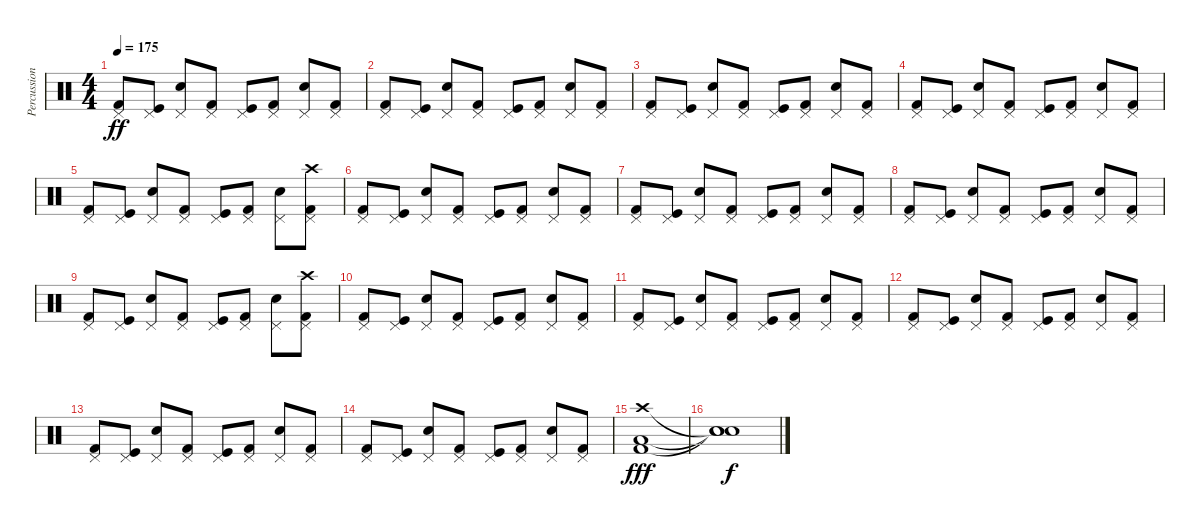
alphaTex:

\track ("Percussion (Karlo Žuliæ)" "Percussion") {instrument percussion}
\staff {score}
\articulation defaults
\ts (4 4)
\tempo 175
\clef neutral
\ks c
("Pedal Hi-Hat (hit)" "Kick (hit) 2").8{dy ff} ("Pedal Hi-Hat (hit)" "Kick (hit)").8 ("Pedal Hi-Hat (hit)" "Snare (hit) 2").8 ("Pedal Hi-Hat (hit)" "Kick (hit) 2").8 ("Pedal Hi-Hat (hit)" "Kick (hit)").8 ("Pedal Hi-Hat (hit)" "Kick (hit) 2").8 ("Pedal Hi-Hat (hit)" "Snare (hit) 2").8 ("Pedal Hi-Hat (hit)" "Kick (hit) 2").8 |
("Pedal Hi-Hat (hit)" "Kick (hit) 2").8 ("Pedal Hi-Hat (hit)" "Kick (hit)").8 ("Pedal Hi-Hat (hit)" "Snare (hit) 2").8 ("Pedal Hi-Hat (hit)" "Kick (hit) 2").8 ("Pedal Hi-Hat (hit)" "Kick (hit)").8 ("Pedal Hi-Hat (hit)" "Kick (hit) 2").8 ("Pedal Hi-Hat (hit)" "Snare (hit) 2").8 ("Pedal Hi-Hat (hit)" "Kick (hit) 2").8 |
("Pedal Hi-Hat (hit)" "Kick (hit) 2").8 ("Pedal Hi-Hat (hit)" "Kick (hit)").8 ("Pedal Hi-Hat (hit)" "Snare (hit) 2").8 ("Pedal Hi-Hat (hit)" "Kick (hit) 2").8 ("Pedal Hi-Hat (hit)" "Kick (hit)").8 ("Pedal Hi-Hat (hit)" "Kick (hit) 2").8 ("Pedal Hi-Hat (hit)" "Snare (hit) 2").8 ("Pedal Hi-Hat (hit)" "Kick (hit) 2").8 |
("Pedal Hi-Hat (hit)" "Kick (hit) 2").8 ("Pedal Hi-Hat (hit)" "Kick (hit)").8 ("Pedal Hi-Hat (hit)" "Snare (hit) 2").8 ("Pedal Hi-Hat (hit)" "Kick (hit) 2").8 ("Pedal Hi-Hat (hit)" "Kick (hit)").8 ("Pedal Hi-Hat (hit)" "Kick (hit) 2").8 ("Pedal Hi-Hat (hit)" "Snare (hit) 2").8 ("Pedal Hi-Hat (hit)" "Kick (hit) 2").8 |
("Pedal Hi-Hat (hit)" "Kick (hit) 2").8 ("Pedal Hi-Hat (hit)" "Kick (hit)").8 ("Pedal Hi-Hat (hit)" "Snare (hit) 2").8 ("Pedal Hi-Hat (hit)" "Kick (hit) 2").8 ("Pedal Hi-Hat (hit)" "Kick (hit)").8 ("Pedal Hi-Hat (hit)" "Kick (hit) 2").8 ("Pedal Hi-Hat (hit)" "Snare (hit) 2").8 ("Pedal Hi-Hat (hit)" "Kick (hit) 2" "Crash high (hit)").8 |
("Pedal Hi-Hat (hit)" "Kick (hit) 2").8 ("Pedal Hi-Hat (hit)" "Kick (hit)").8 ("Pedal Hi-Hat (hit)" "Snare (hit) 2").8 ("Pedal Hi-Hat (hit)" "Kick (hit) 2").8 ("Pedal Hi-Hat (hit)" "Kick (hit)").8 ("Pedal Hi-Hat (hit)" "Kick (hit) 2").8 ("Pedal Hi-Hat (hit)" "Snare (hit) 2").8 ("Pedal Hi-Hat (hit)" "Kick (hit) 2").8 |
("Pedal Hi-Hat (hit)" "Kick (hit) 2").8 ("Pedal Hi-Hat (hit)" "Kick (hit)").8 ("Pedal Hi-Hat (hit)" "Snare (hit) 2").8 ("Pedal Hi-Hat (hit)" "Kick (hit) 2").8 ("Pedal Hi-Hat (hit)" "Kick (hit)").8 ("Pedal Hi-Hat (hit)" "Kick (hit) 2").8 ("Pedal Hi-Hat (hit)" "Snare (hit) 2").8 ("Pedal Hi-Hat (hit)" "Kick (hit) 2").8 |
("Pedal Hi-Hat (hit)" "Kick (hit) 2").8 ("Pedal Hi-Hat (hit)" "Kick (hit)").8 ("Pedal Hi-Hat (hit)" "Snare (hit) 2").8 ("Pedal Hi-Hat (hit)" "Kick (hit) 2").8 ("Pedal Hi-Hat (hit)" "Kick (hit)").8 ("Pedal Hi-Hat (hit)" "Kick (hit) 2").8 ("Pedal Hi-Hat (hit)" "Snare (hit) 2").8 ("Pedal Hi-Hat (hit)" "Kick (hit) 2").8 |
("Pedal Hi-Hat (hit)" "Kick (hit) 2").8 ("Pedal Hi-Hat (hit)" "Kick (hit)").8 ("Pedal Hi-Hat (hit)" "Snare (hit) 2").8 ("Pedal Hi-Hat (hit)" "Kick (hit) 2").8 ("Pedal Hi-Hat (hit)" "Kick (hit)").8 ("Pedal Hi-Hat (hit)" "Kick (hit) 2").8 ("Pedal Hi-Hat (hit)" "Snare (hit) 2").8 ("Pedal Hi-Hat (hit)" "Kick (hit) 2" "Crash high (hit)").8 |
("Pedal Hi-Hat (hit)" "Kick (hit) 2").8 ("Pedal Hi-Hat (hit)" "Kick (hit)").8 ("Pedal Hi-Hat (hit)" "Snare (hit) 2").8 ("Pedal Hi-Hat (hit)" "Kick (hit) 2").8 ("Pedal Hi-Hat (hit)" "Kick (hit)").8 ("Pedal Hi-Hat (hit)" "Kick (hit) 2").8 ("Pedal Hi-Hat (hit)" "Snare (hit) 2").8 ("Pedal Hi-Hat (hit)" "Kick (hit) 2").8 |
("Pedal Hi-Hat (hit)" "Kick (hit) 2").8 ("Pedal Hi-Hat (hit)" "Kick (hit)").8 ("Pedal Hi-Hat (hit)" "Snare (hit) 2").8 ("Pedal Hi-Hat (hit)" "Kick (hit) 2").8 ("Pedal Hi-Hat (hit)" "Kick (hit)").8 ("Pedal Hi-Hat (hit)" "Kick (hit) 2").8 ("Pedal Hi-Hat (hit)" "Snare (hit) 2").8 ("Pedal Hi-Hat (hit)" "Kick (hit) 2").8 |
("Pedal Hi-Hat (hit)" "Kick (hit) 2").8 ("Pedal Hi-Hat (hit)" "Kick (hit)").8 ("Pedal Hi-Hat (hit)" "Snare (hit) 2").8 ("Pedal Hi-Hat (hit)" "Kick (hit) 2").8 ("Pedal Hi-Hat (hit)" "Kick (hit)").8 ("Pedal Hi-Hat (hit)" "Kick (hit) 2").8 ("Pedal Hi-Hat (hit)" "Snare (hit) 2").8 ("Pedal Hi-Hat (hit)" "Kick (hit) 2").8 |
("Pedal Hi-Hat (hit)" "Kick (hit) 2").8 ("Pedal Hi-Hat (hit)" "Kick (hit)").8 ("Pedal Hi-Hat (hit)" "Snare (hit) 2").8 ("Pedal Hi-Hat (hit)" "Kick (hit) 2").8 ("Pedal Hi-Hat (hit)" "Kick (hit)").8 ("Pedal Hi-Hat (hit)" "Kick (hit) 2").8 ("Pedal Hi-Hat (hit)" "Snare (hit) 2").8 ("Pedal Hi-Hat (hit)" "Kick (hit) 2").8 |
("Pedal Hi-Hat (hit)" "Kick (hit) 2").8 ("Pedal Hi-Hat (hit)" "Kick (hit)").8 ("Pedal Hi-Hat (hit)" "Snare (hit) 2").8 ("Pedal Hi-Hat (hit)" "Kick (hit) 2").8 ("Pedal Hi-Hat (hit)" "Kick (hit)").8 ("Pedal Hi-Hat (hit)" "Kick (hit) 2").8 ("Pedal Hi-Hat (hit)" "Snare (hit) 2").8 ("Pedal Hi-Hat (hit)" "Kick (hit) 2").8 |
("Low Floor Tom (hit)" "Kick (hit) 2" "Crash high (hit)").1{dy fff} |
("Snare (hit)"{t} "Snare (hit)"{t} "Snare (hit)"{t}).1{dy f}
